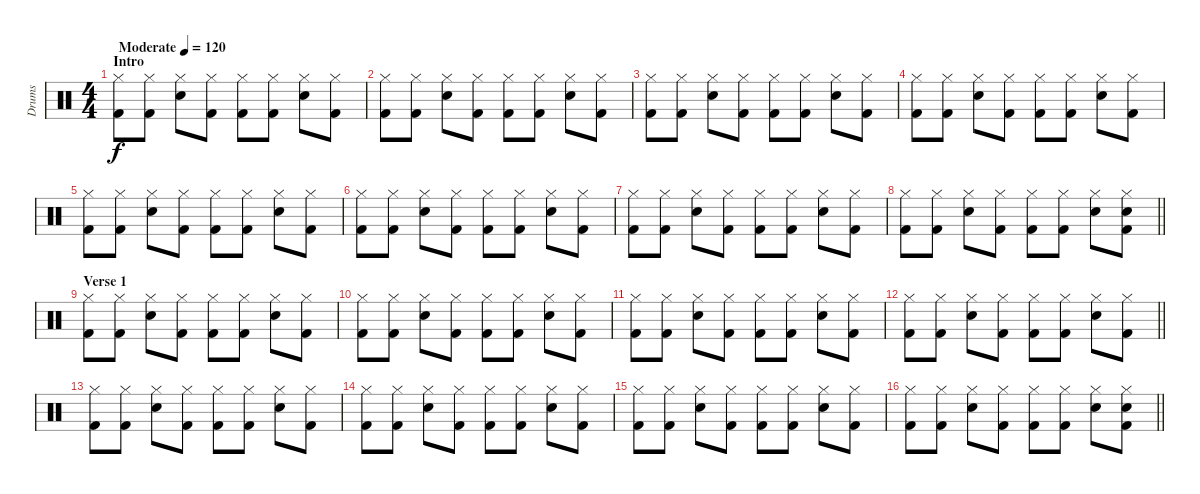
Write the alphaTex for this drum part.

\track ("Drums" "Drums") {instrument percussion}
\staff {score}
\articulation defaults
\ts (4 4)
\section ("" "Intro")
\tempo (120 "Moderate")
\clef neutral
\ks c
("Hi-Hat (closed)" "Kick (hit) 2").8{dy f} ("Hi-Hat (closed)" "Kick (hit) 2").8 ("Hi-Hat (closed)" "Electric Snare (hit)").8 ("Hi-Hat (closed)" "Kick (hit) 2").8 ("Hi-Hat (closed)" "Kick (hit) 2").8 ("Hi-Hat (closed)" "Kick (hit) 2").8 ("Hi-Hat (closed)" "Electric Snare (hit)").8 ("Hi-Hat (closed)" "Kick (hit) 2").8 |
("Hi-Hat (closed)" "Kick (hit) 2").8 ("Hi-Hat (closed)" "Kick (hit) 2").8 ("Hi-Hat (closed)" "Electric Snare (hit)").8 ("Hi-Hat (closed)" "Kick (hit) 2").8 ("Hi-Hat (closed)" "Kick (hit) 2").8 ("Hi-Hat (closed)" "Kick (hit) 2").8 ("Hi-Hat (closed)" "Electric Snare (hit)").8 ("Hi-Hat (closed)" "Kick (hit) 2").8 |
("Hi-Hat (closed)" "Kick (hit) 2").8 ("Hi-Hat (closed)" "Kick (hit) 2").8 ("Hi-Hat (closed)" "Electric Snare (hit)").8 ("Hi-Hat (closed)" "Kick (hit) 2").8 ("Hi-Hat (closed)" "Kick (hit) 2").8 ("Hi-Hat (closed)" "Kick (hit) 2").8 ("Hi-Hat (closed)" "Electric Snare (hit)").8 ("Hi-Hat (closed)" "Kick (hit) 2").8 |
("Hi-Hat (closed)" "Kick (hit) 2").8 ("Hi-Hat (closed)" "Kick (hit) 2").8 ("Hi-Hat (closed)" "Electric Snare (hit)").8 ("Hi-Hat (closed)" "Kick (hit) 2").8 ("Hi-Hat (closed)" "Kick (hit) 2").8 ("Hi-Hat (closed)" "Kick (hit) 2").8 ("Hi-Hat (closed)" "Electric Snare (hit)").8 ("Hi-Hat (closed)" "Kick (hit) 2").8 |
("Hi-Hat (closed)" "Kick (hit) 2").8 ("Hi-Hat (closed)" "Kick (hit) 2").8 ("Hi-Hat (closed)" "Electric Snare (hit)").8 ("Hi-Hat (closed)" "Kick (hit) 2").8 ("Hi-Hat (closed)" "Kick (hit) 2").8 ("Hi-Hat (closed)" "Kick (hit) 2").8 ("Hi-Hat (closed)" "Electric Snare (hit)").8 ("Hi-Hat (closed)" "Kick (hit) 2").8 |
("Hi-Hat (closed)" "Kick (hit) 2").8 ("Hi-Hat (closed)" "Kick (hit) 2").8 ("Hi-Hat (closed)" "Electric Snare (hit)").8 ("Hi-Hat (closed)" "Kick (hit) 2").8 ("Hi-Hat (closed)" "Kick (hit) 2").8 ("Hi-Hat (closed)" "Kick (hit) 2").8 ("Hi-Hat (closed)" "Electric Snare (hit)").8 ("Hi-Hat (closed)" "Kick (hit) 2").8 |
("Hi-Hat (closed)" "Kick (hit) 2").8 ("Hi-Hat (closed)" "Kick (hit) 2").8 ("Hi-Hat (closed)" "Electric Snare (hit)").8 ("Hi-Hat (closed)" "Kick (hit) 2").8 ("Hi-Hat (closed)" "Kick (hit) 2").8 ("Hi-Hat (closed)" "Kick (hit) 2").8 ("Hi-Hat (closed)" "Electric Snare (hit)").8 ("Hi-Hat (closed)" "Kick (hit) 2").8 |
\barLineRight lightlight
("Hi-Hat (closed)" "Kick (hit) 2").8 ("Hi-Hat (closed)" "Kick (hit) 2").8 ("Hi-Hat (closed)" "Electric Snare (hit)").8 ("Hi-Hat (closed)" "Kick (hit) 2").8 ("Hi-Hat (closed)" "Kick (hit) 2").8 ("Hi-Hat (closed)" "Kick (hit) 2").8 ("Hi-Hat (closed)" "Electric Snare (hit)").8 ("Hi-Hat (closed)" "Electric Snare (hit)" "Kick (hit) 2").8 |
\section ("" "Verse 1")
("Hi-Hat (closed)" "Kick (hit) 2").8 ("Hi-Hat (closed)" "Kick (hit) 2").8 ("Hi-Hat (closed)" "Electric Snare (hit)").8 ("Hi-Hat (closed)" "Kick (hit) 2").8 ("Hi-Hat (closed)" "Kick (hit) 2").8 ("Hi-Hat (closed)" "Kick (hit) 2").8 ("Hi-Hat (closed)" "Electric Snare (hit)").8 ("Hi-Hat (closed)" "Kick (hit) 2").8 |
("Hi-Hat (closed)" "Kick (hit) 2").8 ("Hi-Hat (closed)" "Kick (hit) 2").8 ("Hi-Hat (closed)" "Electric Snare (hit)").8 ("Hi-Hat (closed)" "Kick (hit) 2").8 ("Hi-Hat (closed)" "Kick (hit) 2").8 ("Hi-Hat (closed)" "Kick (hit) 2").8 ("Hi-Hat (closed)" "Electric Snare (hit)").8 ("Hi-Hat (closed)" "Kick (hit) 2").8 |
("Hi-Hat (closed)" "Kick (hit) 2").8 ("Hi-Hat (closed)" "Kick (hit) 2").8 ("Hi-Hat (closed)" "Electric Snare (hit)").8 ("Hi-Hat (closed)" "Kick (hit) 2").8 ("Hi-Hat (closed)" "Kick (hit) 2").8 ("Hi-Hat (closed)" "Kick (hit) 2").8 ("Hi-Hat (closed)" "Electric Snare (hit)").8 ("Hi-Hat (closed)" "Kick (hit) 2").8 |
\barLineRight lightlight
("Hi-Hat (closed)" "Kick (hit) 2").8 ("Hi-Hat (closed)" "Kick (hit) 2").8 ("Hi-Hat (closed)" "Electric Snare (hit)").8 ("Hi-Hat (closed)" "Kick (hit) 2").8 ("Hi-Hat (closed)" "Kick (hit) 2").8 ("Hi-Hat (closed)" "Kick (hit) 2").8 ("Hi-Hat (closed)" "Electric Snare (hit)").8 ("Hi-Hat (closed)" "Kick (hit) 2").8 |
("Hi-Hat (closed)" "Kick (hit) 2").8 ("Hi-Hat (closed)" "Kick (hit) 2").8 ("Hi-Hat (closed)" "Electric Snare (hit)").8 ("Hi-Hat (closed)" "Kick (hit) 2").8 ("Hi-Hat (closed)" "Kick (hit) 2").8 ("Hi-Hat (closed)" "Kick (hit) 2").8 ("Hi-Hat (closed)" "Electric Snare (hit)").8 ("Hi-Hat (closed)" "Kick (hit) 2").8 |
("Hi-Hat (closed)" "Kick (hit) 2").8 ("Hi-Hat (closed)" "Kick (hit) 2").8 ("Hi-Hat (closed)" "Electric Snare (hit)").8 ("Hi-Hat (closed)" "Kick (hit) 2").8 ("Hi-Hat (closed)" "Kick (hit) 2").8 ("Hi-Hat (closed)" "Kick (hit) 2").8 ("Hi-Hat (closed)" "Electric Snare (hit)").8 ("Hi-Hat (closed)" "Kick (hit) 2").8 |
("Hi-Hat (closed)" "Kick (hit) 2").8 ("Hi-Hat (closed)" "Kick (hit) 2").8 ("Hi-Hat (closed)" "Electric Snare (hit)").8 ("Hi-Hat (closed)" "Kick (hit) 2").8 ("Hi-Hat (closed)" "Kick (hit) 2").8 ("Hi-Hat (closed)" "Kick (hit) 2").8 ("Hi-Hat (closed)" "Electric Snare (hit)").8 ("Hi-Hat (closed)" "Kick (hit) 2").8 |
\barLineRight lightlight
("Hi-Hat (closed)" "Kick (hit) 2").8 ("Hi-Hat (closed)" "Kick (hit) 2").8 ("Hi-Hat (closed)" "Electric Snare (hit)").8 ("Hi-Hat (closed)" "Kick (hit) 2").8 ("Hi-Hat (closed)" "Kick (hit) 2").8 ("Hi-Hat (closed)" "Kick (hit) 2").8 ("Hi-Hat (closed)" "Electric Snare (hit)").8 ("Hi-Hat (closed)" "Electric Snare (hit)" "Kick (hit) 2").8
